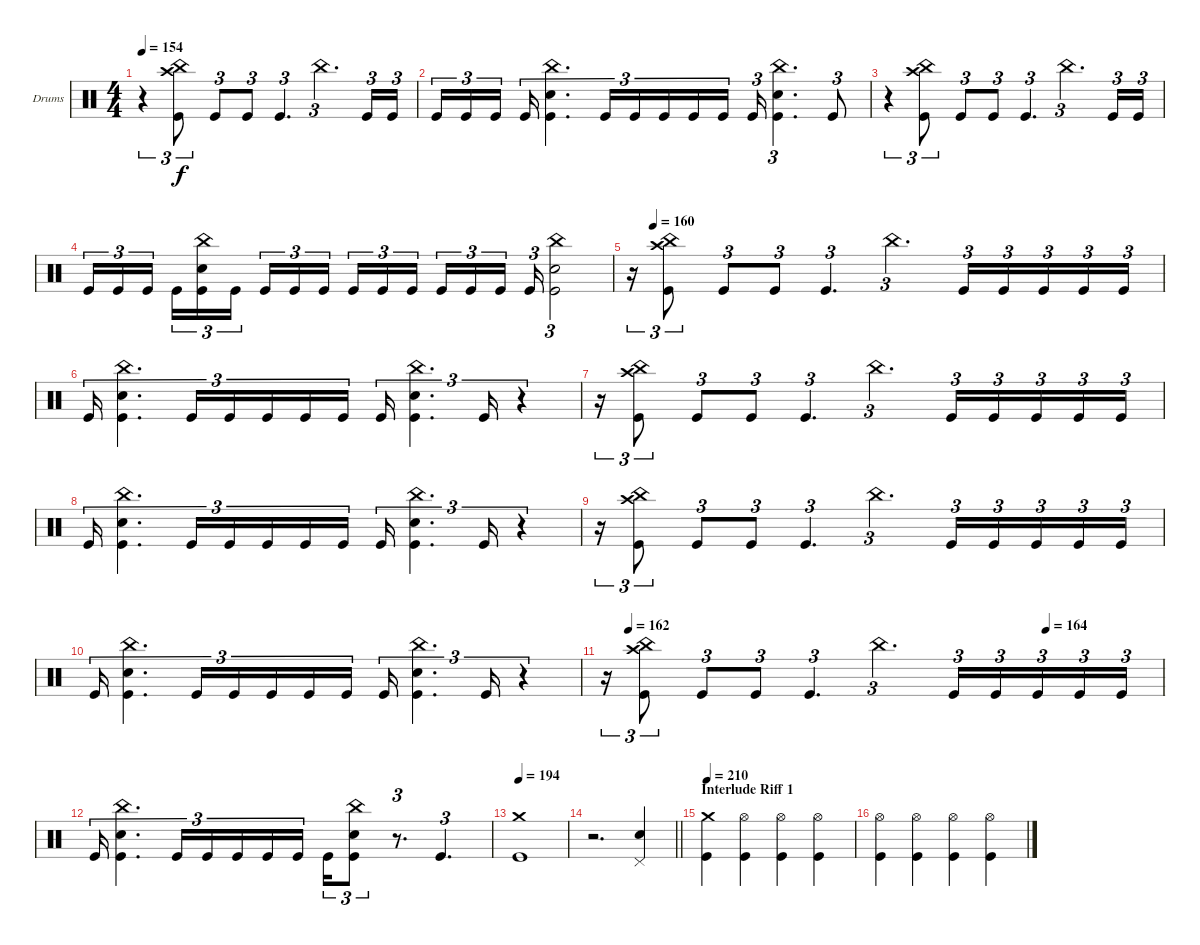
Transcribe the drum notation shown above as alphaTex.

\bracketExtendMode groupsimilarinstruments
\firstSystemTrackNameOrientation horizontal
\otherSystemsTrackNameOrientation horizontal
\track ("Drumkit" "Drums") {instrument percussion}
\staff {score}
\articulation defaults
\ts (4 4)
\tempo 154
\clef neutral
\ks c
r.4{tu (3 2) dy f} ("China (hit)" "Crash high (hit)" "Kick (hit)").8{tu (3 2)} "Kick (hit)".8{tu (3 2)} "Kick (hit)".8{tu (3 2)} "Kick (hit)".4{d tu (3 2)} "China (hit)".4{d tu (3 2)} "Kick (hit)".16{tu (3 2)} "Kick (hit)".16{tu (3 2)} |
"Kick (hit)".16{tu (3 2)} "Kick (hit)".16{tu (3 2)} "Kick (hit)".16{tu (3 2)} "Kick (hit)".16{tu (3 2)} ("China (hit)" "Snare (hit) 2" "Kick (hit)").4{d tu (3 2)} "Kick (hit)".16{tu (3 2)} "Kick (hit)".16{tu (3 2)} "Kick (hit)".16{tu (3 2)} "Kick (hit)".16{tu (3 2)} "Kick (hit)".16{tu (3 2)} "Kick (hit)".16{tu (3 2)} ("China (hit)" "Snare (hit) 2" "Kick (hit)").4{d tu (3 2)} "Kick (hit)".8{tu (3 2)} |
r.4{tu (3 2)} ("China (hit)" "Crash high (hit)" "Kick (hit)").8{tu (3 2)} "Kick (hit)".8{tu (3 2)} "Kick (hit)".8{tu (3 2)} "Kick (hit)".4{d tu (3 2)} "China (hit)".4{d tu (3 2)} "Kick (hit)".16{tu (3 2)} "Kick (hit)".16{tu (3 2)} |
"Kick (hit)".16{tu (3 2)} "Kick (hit)".16{tu (3 2)} "Kick (hit)".16{tu (3 2)} "Kick (hit)".16{tu (3 2)} ("China (hit)" "Snare (hit) 2" "Kick (hit)").16{tu (3 2)} "Kick (hit)".16{tu (3 2)} "Kick (hit)".16{tu (3 2)} "Kick (hit)".16{tu (3 2)} "Kick (hit)".16{tu (3 2)} "Kick (hit)".16{tu (3 2)} "Kick (hit)".16{tu (3 2)} "Kick (hit)".16{tu (3 2)} "Kick (hit)".16{tu (3 2)} "Kick (hit)".16{tu (3 2)} "Kick (hit)".16{tu (3 2)} "Kick (hit)".16{tu (3 2)} ("China (hit)" "Snare (hit) 2" "Kick (hit)").2{tu (3 2)} |
\tempo (160 0.0416667)
r.16{tu (3 2)} ("China (hit)" "Crash high (hit)" "Kick (hit)").8{tu (3 2)} "Kick (hit)".8{tu (3 2)} "Kick (hit)".8{tu (3 2)} "Kick (hit)".4{d tu (3 2)} "China (hit)".4{d tu (3 2)} "Kick (hit)".16{tu (3 2)} "Kick (hit)".16{tu (3 2)} "Kick (hit)".16{tu (3 2)} "Kick (hit)".16{tu (3 2)} "Kick (hit)".16{tu (3 2)} |
"Kick (hit)".16{tu (3 2)} ("China (hit)" "Snare (hit) 2" "Kick (hit)").4{d tu (3 2)} "Kick (hit)".16{tu (3 2)} "Kick (hit)".16{tu (3 2)} "Kick (hit)".16{tu (3 2)} "Kick (hit)".16{tu (3 2)} "Kick (hit)".16{tu (3 2)} "Kick (hit)".16{tu (3 2)} ("China (hit)" "Snare (hit) 2" "Kick (hit)").4{d tu (3 2)} "Kick (hit)".16{tu (3 2)} r.4{tu (3 2)} |
r.16{tu (3 2)} ("China (hit)" "Crash high (hit)" "Kick (hit)").8{tu (3 2)} "Kick (hit)".8{tu (3 2)} "Kick (hit)".8{tu (3 2)} "Kick (hit)".4{d tu (3 2)} "China (hit)".4{d tu (3 2)} "Kick (hit)".16{tu (3 2)} "Kick (hit)".16{tu (3 2)} "Kick (hit)".16{tu (3 2)} "Kick (hit)".16{tu (3 2)} "Kick (hit)".16{tu (3 2)} |
"Kick (hit)".16{tu (3 2)} ("China (hit)" "Snare (hit) 2" "Kick (hit)").4{d tu (3 2)} "Kick (hit)".16{tu (3 2)} "Kick (hit)".16{tu (3 2)} "Kick (hit)".16{tu (3 2)} "Kick (hit)".16{tu (3 2)} "Kick (hit)".16{tu (3 2)} "Kick (hit)".16{tu (3 2)} ("China (hit)" "Snare (hit) 2" "Kick (hit)").4{d tu (3 2)} "Kick (hit)".16{tu (3 2)} r.4{tu (3 2)} |
r.16{tu (3 2)} ("China (hit)" "Crash high (hit)" "Kick (hit)").8{tu (3 2)} "Kick (hit)".8{tu (3 2)} "Kick (hit)".8{tu (3 2)} "Kick (hit)".4{d tu (3 2)} "China (hit)".4{d tu (3 2)} "Kick (hit)".16{tu (3 2)} "Kick (hit)".16{tu (3 2)} "Kick (hit)".16{tu (3 2)} "Kick (hit)".16{tu (3 2)} "Kick (hit)".16{tu (3 2)} |
"Kick (hit)".16{tu (3 2)} ("China (hit)" "Snare (hit) 2" "Kick (hit)").4{d tu (3 2)} "Kick (hit)".16{tu (3 2)} "Kick (hit)".16{tu (3 2)} "Kick (hit)".16{tu (3 2)} "Kick (hit)".16{tu (3 2)} "Kick (hit)".16{tu (3 2)} "Kick (hit)".16{tu (3 2)} ("China (hit)" "Snare (hit) 2" "Kick (hit)").4{d tu (3 2)} "Kick (hit)".16{tu (3 2)} r.4{tu (3 2)} |
\tempo (162 0.0416667)
\tempo (164 0.791667)
r.16{tu (3 2)} ("China (hit)" "Crash high (hit)" "Kick (hit)").8{tu (3 2)} "Kick (hit)".8{tu (3 2)} "Kick (hit)".8{tu (3 2)} "Kick (hit)".4{d tu (3 2)} "China (hit)".4{d tu (3 2)} "Kick (hit)".16{tu (3 2)} "Kick (hit)".16{tu (3 2)} "Kick (hit)".16{tu (3 2)} "Kick (hit)".16{tu (3 2)} "Kick (hit)".16{tu (3 2)} |
"Kick (hit)".16{tu (3 2)} ("China (hit)" "Snare (hit) 2" "Kick (hit)").4{d tu (3 2)} "Kick (hit)".16{tu (3 2)} "Kick (hit)".16{tu (3 2)} "Kick (hit)".16{tu (3 2)} "Kick (hit)".16{tu (3 2)} "Kick (hit)".16{tu (3 2)} "Kick (hit)".16{tu (3 2)} ("China (hit)" "Snare (hit) 2" "Kick (hit)").8{tu (3 2)} r.8{d tu (3 2)} "Kick (hit)".4{d tu (3 2)} |
\tempo 194
("Crash medium (hit)" "Kick (hit)").1 |
\barLineRight lightlight
r.2{d} ("Pedal Hi-Hat (hit)" "Snare (hit) 2").4 |
\section ("" "Interlude Riff 1")
\tempo 210
("Crash medium (hit)" "Kick (hit)").4 ("Hi-Hat (open)" "Kick (hit)").4 ("Hi-Hat (open)" "Kick (hit)").4 ("Hi-Hat (open)" "Kick (hit)").4 |
("Hi-Hat (open)" "Kick (hit)").4 ("Hi-Hat (open)" "Kick (hit)").4 ("Hi-Hat (open)" "Kick (hit)").4 ("Hi-Hat (open)" "Kick (hit)").4
